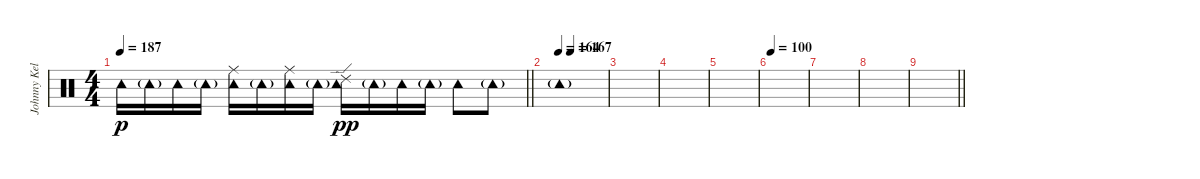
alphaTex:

\track ("Johnny Kelly" "Johnny Kel") {instrument percussion}
\staff {score}
\articulation defaults
\ts (4 4)
\tempo 187
\clef neutral
\barLineRight lightlight
\ks c "Tambourine (hit)".16{dy p} "Tambourine (hit)"{g}.16 "Tambourine (hit)".16 "Tambourine (hit)"{g}.16
("Tambourine (hit)" "Ride (middle)").16 "Tambourine (hit)"{g}.16 ("Tambourine (hit)" "Ride (middle)").16 "Tambourine (hit)"{g}.16 ("Tambourine (hit)" "Ride (edge) 2").16{dy pp} "Tambourine (hit)"{g}.16 "Tambourine (hit)".16 "Tambourine (hit)"{g}.16 "Tambourine (hit)".8 "Tambourine (hit)"{g}.8 |
\tempo 164
\tempo (167 0.25)
"Tambourine (hit)"{g}.1 |
|
|
|
\tempo 100
|
|
|
\barLineRight lightlight
